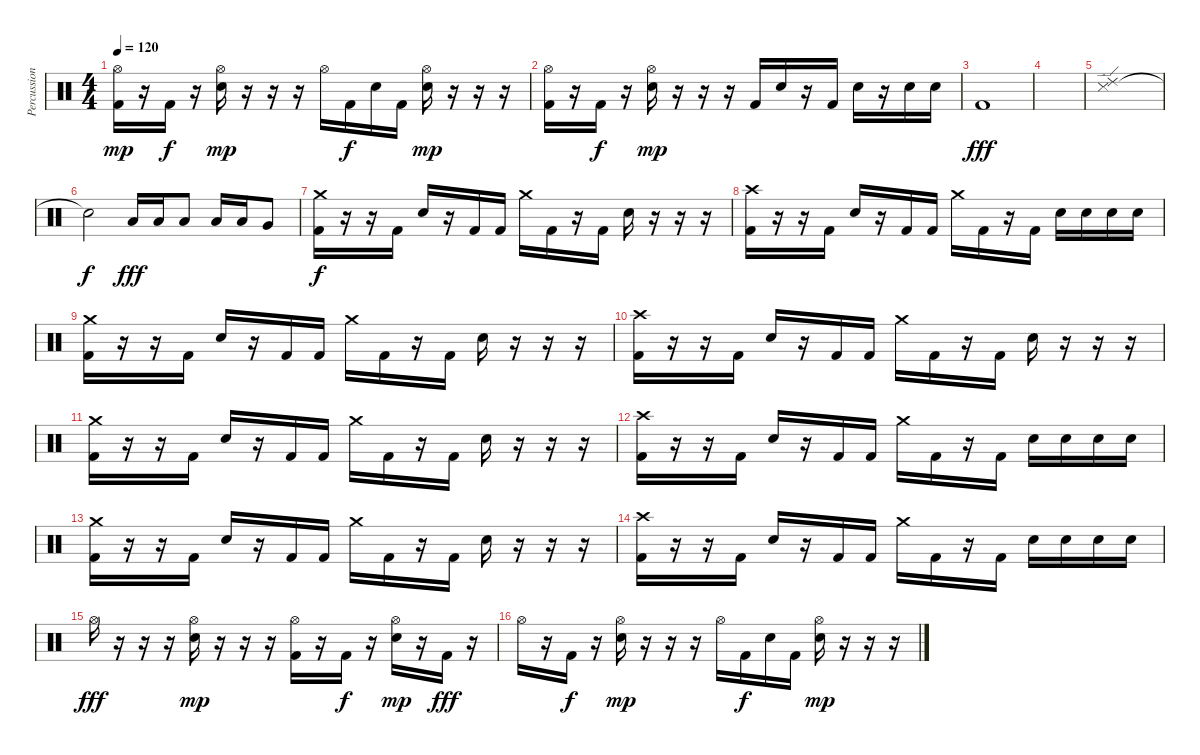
\track ("Percussion" "Percussion") {instrument percussion}
\staff {score}
\articulation defaults
\ts (4 4)
\tempo 120
\clef neutral
\ks c
("Kick (hit) 2" "Hi-Hat (open)").16{dy mp} r.16 "Kick (hit) 2".16{dy f} r.16 ("Snare (hit) 2" "Hi-Hat (open)").16{dy mp} r.16 r.16 r.16 "Hi-Hat (open)".16 "Kick (hit) 2".16{dy f} "Snare (hit) 2".16 "Kick (hit) 2".16 ("Snare (hit) 2" "Hi-Hat (open)").16{dy mp} r.16 r.16 r.16 |
("Kick (hit) 2" "Hi-Hat (open)").16 r.16 "Kick (hit) 2".16{dy f} r.16 ("Snare (hit) 2" "Hi-Hat (open)").16{dy mp} r.16 r.16 r.16 "Kick (hit) 2".16 "Snare (hit) 2".16 r.16 "Kick (hit) 2".16 "Snare (hit) 2".16 r.16 "Snare (hit) 2".16 "Snare (hit) 2".16 |
"Kick (hit) 2".1{dy fff} |
|
("Snare (side stick) 3" "Ride (edge) 2").1 |
"Snare (hit)"{t}.2{dy f} "Low Tom (hit)".16{dy fff} "Low Tom (hit)".16 "Low Tom (hit)".8 "Low Tom (hit)".16 "Low Tom (hit)".16 "Very Low Tom (hit)".8 |
("Kick (hit) 2" "Crash medium (hit)").16{dy f} r.16 r.16 "Kick (hit) 2".16 "Snare (hit) 2".16 r.16 "Kick (hit) 2".16 "Kick (hit) 2".16 "Crash medium (hit)".16 "Kick (hit) 2".16 r.16 "Kick (hit) 2".16 "Snare (hit) 2".16 r.16 r.16 r.16 |
("Kick (hit) 2" "Crash high (hit)").16 r.16 r.16 "Kick (hit) 2".16 "Snare (hit) 2".16 r.16 "Kick (hit) 2".16 "Kick (hit) 2".16 "Crash medium (hit)".16 "Kick (hit) 2".16 r.16 "Kick (hit) 2".16 "Snare (hit) 2".16 "Snare (hit) 2".16 "Snare (hit) 2".16 "Snare (hit) 2".16 |
("Kick (hit) 2" "Crash medium (hit)").16 r.16 r.16 "Kick (hit) 2".16 "Snare (hit) 2".16 r.16 "Kick (hit) 2".16 "Kick (hit) 2".16 "Crash medium (hit)".16 "Kick (hit) 2".16 r.16 "Kick (hit) 2".16 "Snare (hit) 2".16 r.16 r.16 r.16 |
("Kick (hit) 2" "Crash high (hit)").16 r.16 r.16 "Kick (hit) 2".16 "Snare (hit) 2".16 r.16 "Kick (hit) 2".16 "Kick (hit) 2".16 "Crash medium (hit)".16 "Kick (hit) 2".16 r.16 "Kick (hit) 2".16 "Snare (hit) 2".16 r.16 r.16 r.16 |
("Kick (hit) 2" "Crash medium (hit)").16 r.16 r.16 "Kick (hit) 2".16 "Snare (hit) 2".16 r.16 "Kick (hit) 2".16 "Kick (hit) 2".16 "Crash medium (hit)".16 "Kick (hit) 2".16 r.16 "Kick (hit) 2".16 "Snare (hit) 2".16 r.16 r.16 r.16 |
("Kick (hit) 2" "Crash high (hit)").16 r.16 r.16 "Kick (hit) 2".16 "Snare (hit) 2".16 r.16 "Kick (hit) 2".16 "Kick (hit) 2".16 "Crash medium (hit)".16 "Kick (hit) 2".16 r.16 "Kick (hit) 2".16 "Snare (hit) 2".16 "Snare (hit) 2".16 "Snare (hit) 2".16 "Snare (hit) 2".16 |
("Kick (hit) 2" "Crash medium (hit)").16 r.16 r.16 "Kick (hit) 2".16 "Snare (hit) 2".16 r.16 "Kick (hit) 2".16 "Kick (hit) 2".16 "Crash medium (hit)".16 "Kick (hit) 2".16 r.16 "Kick (hit) 2".16 "Snare (hit) 2".16 r.16 r.16 r.16 |
("Kick (hit) 2" "Crash high (hit)").16 r.16 r.16 "Kick (hit) 2".16 "Snare (hit) 2".16 r.16 "Kick (hit) 2".16 "Kick (hit) 2".16 "Crash medium (hit)".16 "Kick (hit) 2".16 r.16 "Kick (hit) 2".16 "Snare (hit) 2".16 "Snare (hit) 2".16 "Snare (hit) 2".16 "Snare (hit) 2".16 |
"Hi-Hat (open)".16{dy fff} r.16 r.16 r.16 ("Snare (hit) 2" "Hi-Hat (open)").16{dy mp} r.16 r.16 r.16 ("Kick (hit) 2" "Hi-Hat (open)").16 r.16 "Kick (hit) 2".16{dy f} r.16 ("Snare (hit) 2" "Hi-Hat (open)").16{dy mp} r.16 "Kick (hit) 2".16{dy fff} r.16 |
"Hi-Hat (open)".16 r.16 "Kick (hit) 2".16{dy f} r.16 ("Snare (hit) 2" "Hi-Hat (open)").16{dy mp} r.16 r.16 r.16 "Hi-Hat (open)".16 "Kick (hit) 2".16{dy f} "Snare (hit) 2".16 "Kick (hit) 2".16 ("Snare (hit) 2" "Hi-Hat (open)").16{dy mp} r.16 r.16 r.16
